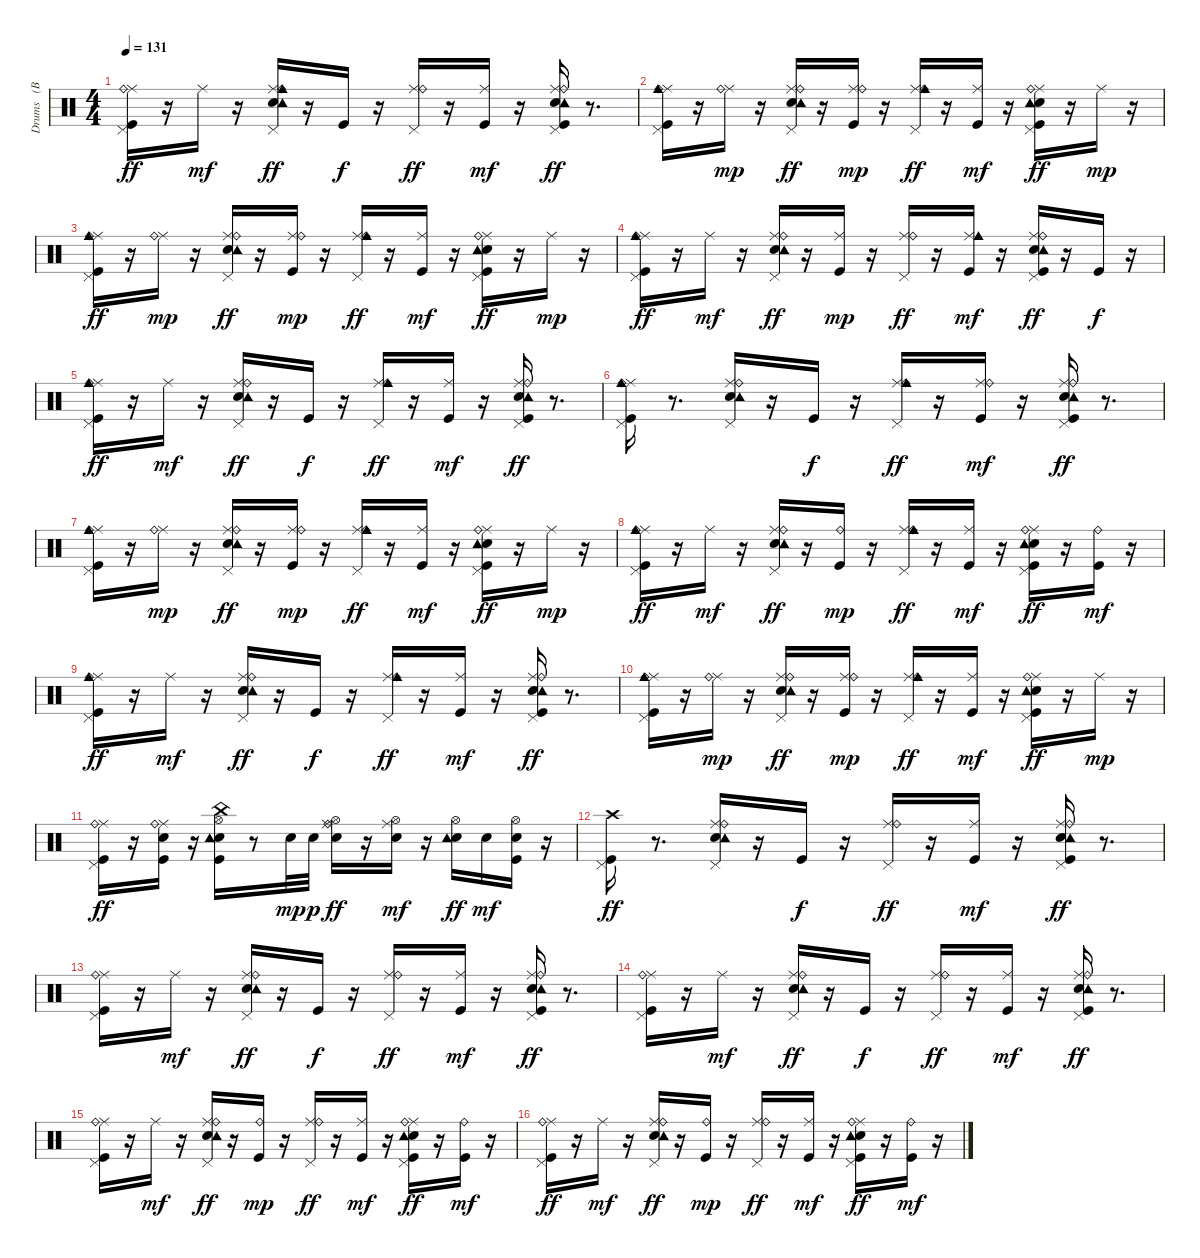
\track ("Drums   (BB)" "Drums   (B") {instrument percussion}
\staff {score}
\articulation defaults
\ts (4 4)
\tempo 131
\clef neutral
\ks c
("Kick (hit)" "Pedal Hi-Hat (hit)" "Ride (middle)" "Ride (bell)").16{dy ff} r.16 "Ride (middle)".16{dy mf} r.16 ("Snare (hit) 2" "Tambourine (hit)" "Pedal Hi-Hat (hit)" "Ride (middle)" "Ride (bell)" "Cowbell medium (hit)").16{dy ff} r.16 "Kick (hit)".16{dy f} r.16 ("Pedal Hi-Hat (hit)" "Ride (middle)" "Ride (bell)").16{dy ff} r.16 ("Kick (hit)" "Ride (middle)").16{dy mf} r.16 ("Kick (hit)" "Snare (hit) 2" "Tambourine (hit)" "Pedal Hi-Hat (hit)" "Ride (middle)" "Ride (bell)").16{dy ff} r.8{d} |
("Kick (hit)" "Pedal Hi-Hat (hit)" "Ride (middle)" "Ride (bell)" "Cowbell medium (hit)").16 r.16 ("Ride (middle)" "Ride (bell)").16{dy mp} r.16 ("Snare (hit) 2" "Tambourine (hit)" "Pedal Hi-Hat (hit)" "Ride (middle)" "Ride (bell)").16{dy ff} r.16 ("Kick (hit)" "Ride (middle)" "Ride (bell)").16{dy mp} r.16 ("Pedal Hi-Hat (hit)" "Ride (middle)" "Ride (bell)" "Cowbell medium (hit)").16{dy ff} r.16 ("Kick (hit)" "Ride (middle)").16{dy mf} r.16 ("Kick (hit)" "Snare (hit) 2" "Tambourine (hit)" "Pedal Hi-Hat (hit)" "Ride (middle)" "Ride (bell)").16{dy ff} r.16 "Ride (middle)".16{dy mp} r.16 |
("Kick (hit)" "Pedal Hi-Hat (hit)" "Ride (middle)" "Ride (bell)" "Cowbell medium (hit)").16{dy ff} r.16 ("Ride (middle)" "Ride (bell)").16{dy mp} r.16 ("Snare (hit) 2" "Tambourine (hit)" "Pedal Hi-Hat (hit)" "Ride (middle)" "Ride (bell)").16{dy ff} r.16 ("Kick (hit)" "Ride (middle)" "Ride (bell)").16{dy mp} r.16 ("Pedal Hi-Hat (hit)" "Ride (middle)" "Ride (bell)" "Cowbell medium (hit)").16{dy ff} r.16 ("Kick (hit)" "Ride (middle)").16{dy mf} r.16 ("Kick (hit)" "Snare (hit) 2" "Tambourine (hit)" "Pedal Hi-Hat (hit)" "Ride (middle)" "Ride (bell)").16{dy ff} r.16 "Ride (middle)".16{dy mp} r.16 |
("Kick (hit)" "Pedal Hi-Hat (hit)" "Ride (middle)" "Ride (bell)" "Cowbell medium (hit)").16{dy ff} r.16 "Ride (middle)".16{dy mf} r.16 ("Snare (hit) 2" "Tambourine (hit)" "Pedal Hi-Hat (hit)" "Ride (middle)" "Ride (bell)").16{dy ff} r.16 ("Kick (hit)" "Ride (middle)").16{dy mp} r.16 ("Pedal Hi-Hat (hit)" "Ride (middle)" "Ride (bell)").16{dy ff} r.16 ("Kick (hit)" "Ride (middle)" "Cowbell medium (hit)").16{dy mf} r.16 ("Kick (hit)" "Snare (hit) 2" "Tambourine (hit)" "Pedal Hi-Hat (hit)" "Ride (middle)" "Ride (bell)").16{dy ff} r.16 "Kick (hit)".16{dy f} r.16 |
("Kick (hit)" "Pedal Hi-Hat (hit)" "Ride (middle)" "Ride (bell)" "Cowbell medium (hit)").16{dy ff} r.16 "Ride (middle)".16{dy mf} r.16 ("Snare (hit) 2" "Tambourine (hit)" "Pedal Hi-Hat (hit)" "Ride (middle)" "Ride (bell)").16{dy ff} r.16 "Kick (hit)".16{dy f} r.16 ("Pedal Hi-Hat (hit)" "Ride (middle)" "Ride (bell)" "Cowbell medium (hit)").16{dy ff} r.16 ("Kick (hit)" "Ride (middle)").16{dy mf} r.16 ("Kick (hit)" "Snare (hit) 2" "Tambourine (hit)" "Pedal Hi-Hat (hit)" "Ride (middle)" "Ride (bell)").16{dy ff} r.8{d} |
("Kick (hit)" "Pedal Hi-Hat (hit)" "Ride (middle)" "Ride (bell)" "Cowbell medium (hit)").16 r.8{d} ("Snare (hit) 2" "Tambourine (hit)" "Pedal Hi-Hat (hit)" "Ride (middle)" "Ride (bell)").16 r.16 "Kick (hit)".16{dy f} r.16 ("Pedal Hi-Hat (hit)" "Ride (middle)" "Ride (bell)" "Cowbell medium (hit)").16{dy ff} r.16 ("Kick (hit)" "Ride (middle)" "Ride (bell)").16{dy mf} r.16 ("Kick (hit)" "Snare (hit) 2" "Tambourine (hit)" "Pedal Hi-Hat (hit)" "Ride (middle)" "Ride (bell)").16{dy ff} r.8{d} |
("Kick (hit)" "Pedal Hi-Hat (hit)" "Ride (middle)" "Ride (bell)" "Cowbell medium (hit)").16 r.16 ("Ride (middle)" "Ride (bell)").16{dy mp} r.16 ("Snare (hit) 2" "Tambourine (hit)" "Pedal Hi-Hat (hit)" "Ride (middle)" "Ride (bell)").16{dy ff} r.16 ("Kick (hit)" "Ride (middle)" "Ride (bell)").16{dy mp} r.16 ("Pedal Hi-Hat (hit)" "Ride (middle)" "Ride (bell)" "Cowbell medium (hit)").16{dy ff} r.16 ("Kick (hit)" "Ride (middle)").16{dy mf} r.16 ("Kick (hit)" "Snare (hit) 2" "Tambourine (hit)" "Pedal Hi-Hat (hit)" "Ride (middle)" "Ride (bell)").16{dy ff} r.16 "Ride (middle)".16{dy mp} r.16 |
("Kick (hit)" "Pedal Hi-Hat (hit)" "Ride (middle)" "Ride (bell)" "Cowbell medium (hit)").16{dy ff} r.16 "Ride (middle)".16{dy mf} r.16 ("Snare (hit) 2" "Tambourine (hit)" "Pedal Hi-Hat (hit)" "Ride (middle)" "Ride (bell)").16{dy ff} r.16 ("Kick (hit)" "Ride (bell)").16{dy mp} r.16 ("Pedal Hi-Hat (hit)" "Ride (middle)" "Ride (bell)" "Cowbell medium (hit)").16{dy ff} r.16 ("Kick (hit)" "Ride (middle)").16{dy mf} r.16 ("Kick (hit)" "Snare (hit) 2" "Tambourine (hit)" "Pedal Hi-Hat (hit)" "Ride (middle)" "Ride (bell)").16{dy ff} r.16 ("Kick (hit)" "Ride (bell)").16{dy mf} r.16 |
("Kick (hit)" "Pedal Hi-Hat (hit)" "Ride (middle)" "Ride (bell)" "Cowbell medium (hit)").16{dy ff} r.16 "Ride (middle)".16{dy mf} r.16 ("Snare (hit) 2" "Tambourine (hit)" "Pedal Hi-Hat (hit)" "Ride (middle)" "Ride (bell)").16{dy ff} r.16 "Kick (hit)".16{dy f} r.16 ("Pedal Hi-Hat (hit)" "Ride (middle)" "Ride (bell)" "Cowbell medium (hit)").16{dy ff} r.16 ("Kick (hit)" "Ride (middle)").16{dy mf} r.16 ("Kick (hit)" "Snare (hit) 2" "Tambourine (hit)" "Pedal Hi-Hat (hit)" "Ride (middle)" "Ride (bell)").16{dy ff} r.8{d} |
("Kick (hit)" "Pedal Hi-Hat (hit)" "Ride (middle)" "Ride (bell)" "Cowbell medium (hit)").16 r.16 ("Ride (middle)" "Ride (bell)").16{dy mp} r.16 ("Snare (hit) 2" "Tambourine (hit)" "Pedal Hi-Hat (hit)" "Ride (middle)" "Ride (bell)").16{dy ff} r.16 ("Kick (hit)" "Ride (middle)" "Ride (bell)").16{dy mp} r.16 ("Pedal Hi-Hat (hit)" "Ride (middle)" "Ride (bell)" "Cowbell medium (hit)").16{dy ff} r.16 ("Kick (hit)" "Ride (middle)").16{dy mf} r.16 ("Kick (hit)" "Snare (hit) 2" "Tambourine (hit)" "Pedal Hi-Hat (hit)" "Ride (middle)" "Ride (bell)").16{dy ff} r.16 "Ride (middle)".16{dy mp} r.16 |
("Kick (hit)" "Pedal Hi-Hat (hit)" "Ride (middle)" "Ride (bell)").16{dy ff} r.16 ("Kick (hit)" "Snare (hit) 2" "Ride (middle)" "Ride (bell)").16 r.16 ("Kick (hit)" "Snare (hit) 2" "Tambourine (hit)" "Hi-Hat (open)" "China (hit)").16 r.8 "Snare (hit) 2".32{dy mp} "Snare (hit) 2".32{dy p} ("Snare (hit) 2" "Hi-Hat (open)" "Ride (middle)" "Ride (bell)").16{dy ff} r.16 ("Snare (hit) 2" "Hi-Hat (open)" "Ride (middle)").16{dy mf} r.16 ("Snare (hit) 2" "Tambourine (hit)" "Hi-Hat (open)").16{dy ff} "Snare (hit) 2".16{dy mf} ("Kick (hit)" "Snare (hit) 2" "Hi-Hat (open)").16 r.16 |
("Kick (hit)" "Pedal Hi-Hat (hit)" "Crash high (hit)").16{dy ff} r.8{d} ("Snare (hit) 2" "Tambourine (hit)" "Pedal Hi-Hat (hit)" "Ride (middle)" "Ride (bell)").16 r.16 "Kick (hit)".16{dy f} r.16 ("Pedal Hi-Hat (hit)" "Ride (middle)" "Ride (bell)").16{dy ff} r.16 ("Kick (hit)" "Ride (middle)").16{dy mf} r.16 ("Kick (hit)" "Snare (hit) 2" "Tambourine (hit)" "Pedal Hi-Hat (hit)" "Ride (middle)" "Ride (bell)").16{dy ff} r.8{d} |
("Kick (hit)" "Pedal Hi-Hat (hit)" "Ride (middle)" "Ride (bell)").16 r.16 "Ride (middle)".16{dy mf} r.16 ("Snare (hit) 2" "Tambourine (hit)" "Pedal Hi-Hat (hit)" "Ride (middle)" "Ride (bell)").16{dy ff} r.16 "Kick (hit)".16{dy f} r.16 ("Pedal Hi-Hat (hit)" "Ride (middle)" "Ride (bell)").16{dy ff} r.16 ("Kick (hit)" "Ride (middle)").16{dy mf} r.16 ("Kick (hit)" "Snare (hit) 2" "Tambourine (hit)" "Pedal Hi-Hat (hit)" "Ride (middle)" "Ride (bell)").16{dy ff} r.8{d} |
("Kick (hit)" "Pedal Hi-Hat (hit)" "Ride (middle)" "Ride (bell)").16 r.16 "Ride (middle)".16{dy mf} r.16 ("Snare (hit) 2" "Tambourine (hit)" "Pedal Hi-Hat (hit)" "Ride (middle)" "Ride (bell)").16{dy ff} r.16 "Kick (hit)".16{dy f} r.16 ("Pedal Hi-Hat (hit)" "Ride (middle)" "Ride (bell)").16{dy ff} r.16 ("Kick (hit)" "Ride (middle)").16{dy mf} r.16 ("Kick (hit)" "Snare (hit) 2" "Tambourine (hit)" "Pedal Hi-Hat (hit)" "Ride (middle)" "Ride (bell)").16{dy ff} r.8{d} |
("Kick (hit)" "Pedal Hi-Hat (hit)" "Ride (middle)" "Ride (bell)").16 r.16 "Ride (middle)".16{dy mf} r.16 ("Snare (hit) 2" "Tambourine (hit)" "Pedal Hi-Hat (hit)" "Ride (middle)" "Ride (bell)").16{dy ff} r.16 ("Kick (hit)" "Ride (bell)").16{dy mp} r.16 ("Pedal Hi-Hat (hit)" "Ride (middle)" "Ride (bell)").16{dy ff} r.16 ("Kick (hit)" "Ride (middle)").16{dy mf} r.16 ("Kick (hit)" "Snare (hit) 2" "Tambourine (hit)" "Pedal Hi-Hat (hit)" "Ride (middle)" "Ride (bell)").16{dy ff} r.16 ("Kick (hit)" "Ride (bell)").16{dy mf} r.16 |
("Kick (hit)" "Pedal Hi-Hat (hit)" "Ride (middle)" "Ride (bell)").16{dy ff} r.16 "Ride (middle)".16{dy mf} r.16 ("Snare (hit) 2" "Tambourine (hit)" "Pedal Hi-Hat (hit)" "Ride (middle)" "Ride (bell)").16{dy ff} r.16 ("Kick (hit)" "Ride (bell)").16{dy mp} r.16 ("Pedal Hi-Hat (hit)" "Ride (middle)" "Ride (bell)").16{dy ff} r.16 ("Kick (hit)" "Ride (middle)").16{dy mf} r.16 ("Kick (hit)" "Snare (hit) 2" "Tambourine (hit)" "Pedal Hi-Hat (hit)" "Ride (middle)" "Ride (bell)").16{dy ff} r.16 ("Kick (hit)" "Ride (bell)").16{dy mf} r.16
